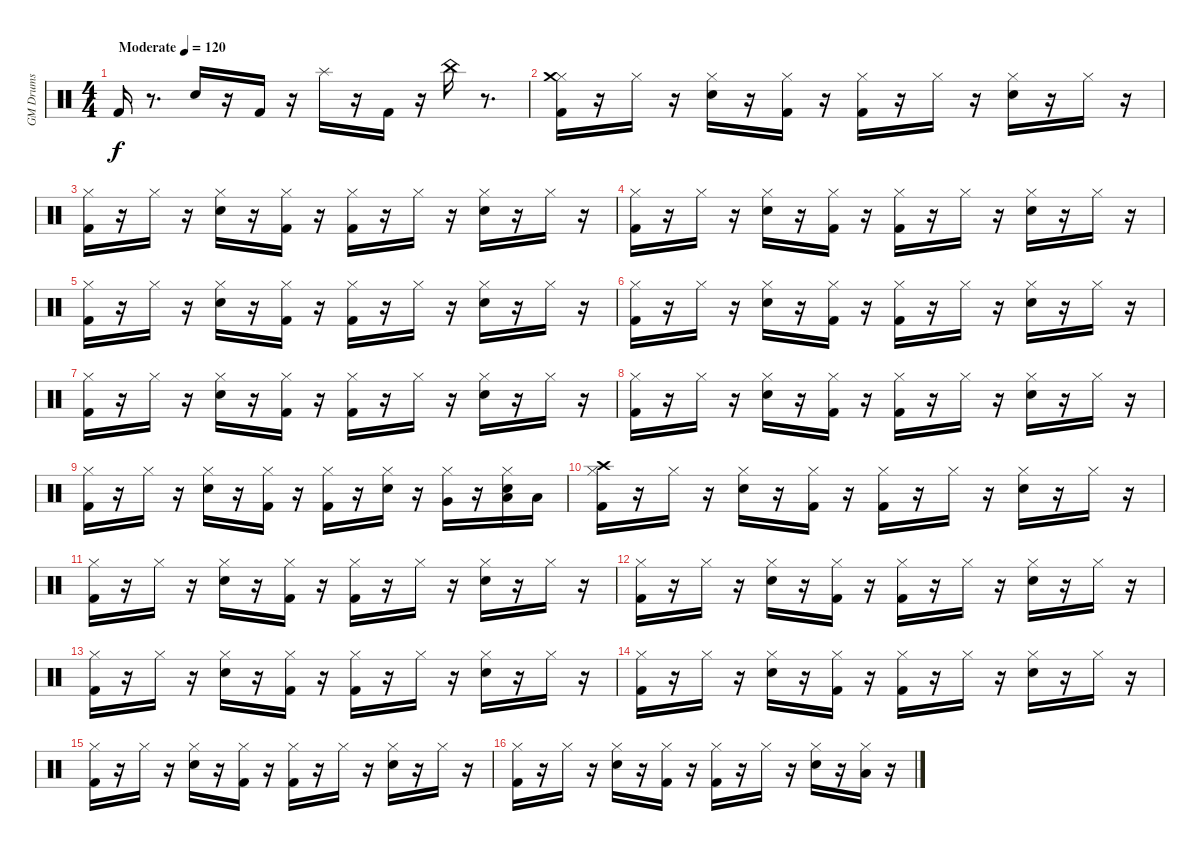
\track ("GM Drums" "GM Drums") {instrument percussion}
\staff {score}
\articulation defaults
\ts (4 4)
\tempo (120 "Moderate")
\clef neutral
\ks c "Kick (hit) 2".16{dy f}
r.8{d} "Snare (hit) 2".16 r.16 "Kick (hit) 2".16 r.16 "Splash (hit)".16 r.16 "Kick (hit) 2".16 r.16 "China (hit)".16 r.8{d} |
("Kick (hit) 2" "Hi-Hat (closed)" "Crash medium (hit)").16 r.16 "Hi-Hat (closed)".16 r.16 ("Snare (hit) 2" "Hi-Hat (closed)").16 r.16 ("Kick (hit) 2" "Hi-Hat (closed)").16 r.16 ("Kick (hit) 2" "Hi-Hat (closed)").16 r.16 "Hi-Hat (closed)".16 r.16 ("Snare (hit) 2" "Hi-Hat (closed)").16 r.16 "Hi-Hat (closed)".16 r.16 |
("Kick (hit) 2" "Hi-Hat (closed)").16 r.16 "Hi-Hat (closed)".16 r.16 ("Snare (hit) 2" "Hi-Hat (closed)").16 r.16 ("Kick (hit) 2" "Hi-Hat (closed)").16 r.16 ("Kick (hit) 2" "Hi-Hat (closed)").16 r.16 "Hi-Hat (closed)".16 r.16 ("Snare (hit) 2" "Hi-Hat (closed)").16 r.16 "Hi-Hat (closed)".16 r.16 |
("Kick (hit) 2" "Hi-Hat (closed)").16 r.16 "Hi-Hat (closed)".16 r.16 ("Snare (hit) 2" "Hi-Hat (closed)").16 r.16 ("Kick (hit) 2" "Hi-Hat (closed)").16 r.16 ("Kick (hit) 2" "Hi-Hat (closed)").16 r.16 "Hi-Hat (closed)".16 r.16 ("Snare (hit) 2" "Hi-Hat (closed)").16 r.16 "Hi-Hat (closed)".16 r.16 |
("Kick (hit) 2" "Hi-Hat (closed)").16 r.16 "Hi-Hat (closed)".16 r.16 ("Snare (hit) 2" "Hi-Hat (closed)").16 r.16 ("Kick (hit) 2" "Hi-Hat (closed)").16 r.16 ("Kick (hit) 2" "Hi-Hat (closed)").16 r.16 "Hi-Hat (closed)".16 r.16 ("Snare (hit) 2" "Hi-Hat (closed)").16 r.16 "Hi-Hat (closed)".16 r.16 |
("Kick (hit) 2" "Hi-Hat (closed)").16 r.16 "Hi-Hat (closed)".16 r.16 ("Snare (hit) 2" "Hi-Hat (closed)").16 r.16 ("Kick (hit) 2" "Hi-Hat (closed)").16 r.16 ("Kick (hit) 2" "Hi-Hat (closed)").16 r.16 "Hi-Hat (closed)".16 r.16 ("Snare (hit) 2" "Hi-Hat (closed)").16 r.16 "Hi-Hat (closed)".16 r.16 |
("Kick (hit) 2" "Hi-Hat (closed)").16 r.16 "Hi-Hat (closed)".16 r.16 ("Snare (hit) 2" "Hi-Hat (closed)").16 r.16 ("Kick (hit) 2" "Hi-Hat (closed)").16 r.16 ("Kick (hit) 2" "Hi-Hat (closed)").16 r.16 "Hi-Hat (closed)".16 r.16 ("Snare (hit) 2" "Hi-Hat (closed)").16 r.16 "Hi-Hat (closed)".16 r.16 |
("Kick (hit) 2" "Hi-Hat (closed)").16 r.16 "Hi-Hat (closed)".16 r.16 ("Snare (hit) 2" "Hi-Hat (closed)").16 r.16 ("Kick (hit) 2" "Hi-Hat (closed)").16 r.16 ("Kick (hit) 2" "Hi-Hat (closed)").16 r.16 "Hi-Hat (closed)".16 r.16 ("Snare (hit) 2" "Hi-Hat (closed)").16 r.16 "Hi-Hat (closed)".16 r.16 |
("Kick (hit) 2" "Hi-Hat (closed)").16 r.16 "Hi-Hat (closed)".16 r.16 ("Snare (hit) 2" "Hi-Hat (closed)").16 r.16 ("Kick (hit) 2" "Hi-Hat (closed)").16 r.16 ("Kick (hit) 2" "Hi-Hat (closed)").16 r.16 ("Snare (hit) 2" "Hi-Hat (closed)").16 r.16 ("Hi-Hat (closed)" "Very Low Tom (hit)").16 r.16 ("Snare (hit) 2" "Hi-Hat (closed)" "Low Tom (hit)").16 "Low Tom (hit)".16 |
("Kick (hit) 2" "Hi-Hat (closed)" "Crash high (hit)").16 r.16 "Hi-Hat (closed)".16 r.16 ("Snare (hit) 2" "Hi-Hat (closed)").16 r.16 ("Kick (hit) 2" "Hi-Hat (closed)").16 r.16 ("Kick (hit) 2" "Hi-Hat (closed)").16 r.16 "Hi-Hat (closed)".16 r.16 ("Snare (hit) 2" "Hi-Hat (closed)").16 r.16 "Hi-Hat (closed)".16 r.16 |
("Kick (hit) 2" "Hi-Hat (closed)").16 r.16 "Hi-Hat (closed)".16 r.16 ("Snare (hit) 2" "Hi-Hat (closed)").16 r.16 ("Kick (hit) 2" "Hi-Hat (closed)").16 r.16 ("Kick (hit) 2" "Hi-Hat (closed)").16 r.16 "Hi-Hat (closed)".16 r.16 ("Snare (hit) 2" "Hi-Hat (closed)").16 r.16 "Hi-Hat (closed)".16 r.16 |
("Kick (hit) 2" "Hi-Hat (closed)").16 r.16 "Hi-Hat (closed)".16 r.16 ("Snare (hit) 2" "Hi-Hat (closed)").16 r.16 ("Kick (hit) 2" "Hi-Hat (closed)").16 r.16 ("Kick (hit) 2" "Hi-Hat (closed)").16 r.16 "Hi-Hat (closed)".16 r.16 ("Snare (hit) 2" "Hi-Hat (closed)").16 r.16 "Hi-Hat (closed)".16 r.16 |
("Kick (hit) 2" "Hi-Hat (closed)").16 r.16 "Hi-Hat (closed)".16 r.16 ("Snare (hit) 2" "Hi-Hat (closed)").16 r.16 ("Kick (hit) 2" "Hi-Hat (closed)").16 r.16 ("Kick (hit) 2" "Hi-Hat (closed)").16 r.16 "Hi-Hat (closed)".16 r.16 ("Snare (hit) 2" "Hi-Hat (closed)").16 r.16 "Hi-Hat (closed)".16 r.16 |
("Kick (hit) 2" "Hi-Hat (closed)").16 r.16 "Hi-Hat (closed)".16 r.16 ("Snare (hit) 2" "Hi-Hat (closed)").16 r.16 ("Kick (hit) 2" "Hi-Hat (closed)").16 r.16 ("Kick (hit) 2" "Hi-Hat (closed)").16 r.16 "Hi-Hat (closed)".16 r.16 ("Snare (hit) 2" "Hi-Hat (closed)").16 r.16 "Hi-Hat (closed)".16 r.16 |
("Kick (hit) 2" "Hi-Hat (closed)").16 r.16 "Hi-Hat (closed)".16 r.16 ("Snare (hit) 2" "Hi-Hat (closed)").16 r.16 ("Kick (hit) 2" "Hi-Hat (closed)").16 r.16 ("Kick (hit) 2" "Hi-Hat (closed)").16 r.16 "Hi-Hat (closed)".16 r.16 ("Snare (hit) 2" "Hi-Hat (closed)").16 r.16 "Hi-Hat (closed)".16 r.16 |
("Kick (hit) 2" "Hi-Hat (closed)").16 r.16 "Hi-Hat (closed)".16 r.16 ("Snare (hit) 2" "Hi-Hat (closed)").16 r.16 ("Kick (hit) 2" "Hi-Hat (closed)").16 r.16 ("Kick (hit) 2" "Hi-Hat (closed)").16 r.16 "Hi-Hat (closed)".16 r.16 ("Snare (hit) 2" "Hi-Hat (closed)").16 r.16 ("Low Floor Tom (hit)" "Hi-Hat (closed)").16 r.16
